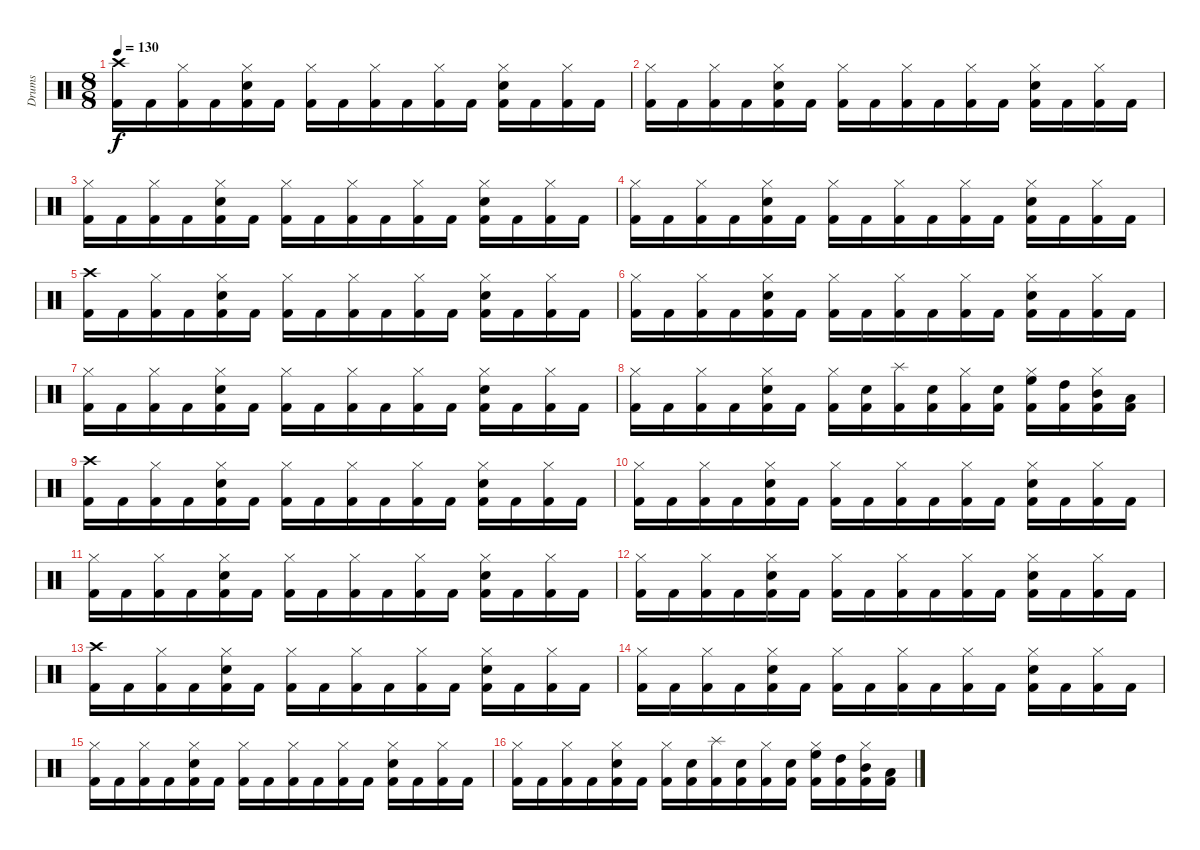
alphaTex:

\track ("Drums" "Drums") {instrument percussion}
\staff {score}
\articulation defaults
\ts (8 8)
\tempo 130
\clef neutral
\ks c
("Kick (hit) 2" "Crash high (hit)").16{dy f} "Kick (hit) 2".16 ("Kick (hit) 2" "Hi-Hat (closed)").16 "Kick (hit) 2".16 ("Kick (hit) 2" "Electric Snare (hit)" "Hi-Hat (closed)").16 "Kick (hit) 2".16 ("Kick (hit) 2" "Hi-Hat (closed)").16 "Kick (hit) 2".16 ("Kick (hit) 2" "Hi-Hat (closed)").16 "Kick (hit) 2".16 ("Kick (hit) 2" "Hi-Hat (closed)").16 "Kick (hit) 2".16 ("Kick (hit) 2" "Electric Snare (hit)" "Hi-Hat (closed)").16 "Kick (hit) 2".16 ("Kick (hit) 2" "Hi-Hat (closed)").16 "Kick (hit) 2".16 |
("Kick (hit) 2" "Hi-Hat (closed)").16 "Kick (hit) 2".16 ("Kick (hit) 2" "Hi-Hat (closed)").16 "Kick (hit) 2".16 ("Kick (hit) 2" "Electric Snare (hit)" "Hi-Hat (closed)").16 "Kick (hit) 2".16 ("Kick (hit) 2" "Hi-Hat (closed)").16 "Kick (hit) 2".16 ("Kick (hit) 2" "Hi-Hat (closed)").16 "Kick (hit) 2".16 ("Kick (hit) 2" "Hi-Hat (closed)").16 "Kick (hit) 2".16 ("Kick (hit) 2" "Electric Snare (hit)" "Hi-Hat (closed)").16 "Kick (hit) 2".16 ("Kick (hit) 2" "Hi-Hat (closed)").16 "Kick (hit) 2".16 |
("Kick (hit) 2" "Hi-Hat (closed)").16 "Kick (hit) 2".16 ("Kick (hit) 2" "Hi-Hat (closed)").16 "Kick (hit) 2".16 ("Kick (hit) 2" "Electric Snare (hit)" "Hi-Hat (closed)").16 "Kick (hit) 2".16 ("Kick (hit) 2" "Hi-Hat (closed)").16 "Kick (hit) 2".16 ("Kick (hit) 2" "Hi-Hat (closed)").16 "Kick (hit) 2".16 ("Kick (hit) 2" "Hi-Hat (closed)").16 "Kick (hit) 2".16 ("Kick (hit) 2" "Electric Snare (hit)" "Hi-Hat (closed)").16 "Kick (hit) 2".16 ("Kick (hit) 2" "Hi-Hat (closed)").16 "Kick (hit) 2".16 |
("Kick (hit) 2" "Hi-Hat (closed)").16 "Kick (hit) 2".16 ("Kick (hit) 2" "Hi-Hat (closed)").16 "Kick (hit) 2".16 ("Kick (hit) 2" "Electric Snare (hit)" "Hi-Hat (closed)").16 "Kick (hit) 2".16 ("Kick (hit) 2" "Hi-Hat (closed)").16 "Kick (hit) 2".16 ("Kick (hit) 2" "Hi-Hat (closed)").16 "Kick (hit) 2".16 ("Kick (hit) 2" "Hi-Hat (closed)").16 "Kick (hit) 2".16 ("Kick (hit) 2" "Electric Snare (hit)" "Hi-Hat (closed)").16 "Kick (hit) 2".16 ("Kick (hit) 2" "Hi-Hat (closed)").16 "Kick (hit) 2".16 |
("Kick (hit) 2" "Crash high (hit)").16 "Kick (hit) 2".16 ("Kick (hit) 2" "Hi-Hat (closed)").16 "Kick (hit) 2".16 ("Kick (hit) 2" "Electric Snare (hit)" "Hi-Hat (closed)").16 "Kick (hit) 2".16 ("Kick (hit) 2" "Hi-Hat (closed)").16 "Kick (hit) 2".16 ("Kick (hit) 2" "Hi-Hat (closed)").16 "Kick (hit) 2".16 ("Kick (hit) 2" "Hi-Hat (closed)").16 "Kick (hit) 2".16 ("Kick (hit) 2" "Electric Snare (hit)" "Hi-Hat (closed)").16 "Kick (hit) 2".16 ("Kick (hit) 2" "Hi-Hat (closed)").16 "Kick (hit) 2".16 |
("Kick (hit) 2" "Hi-Hat (closed)").16 "Kick (hit) 2".16 ("Kick (hit) 2" "Hi-Hat (closed)").16 "Kick (hit) 2".16 ("Kick (hit) 2" "Electric Snare (hit)" "Hi-Hat (closed)").16 "Kick (hit) 2".16 ("Kick (hit) 2" "Hi-Hat (closed)").16 "Kick (hit) 2".16 ("Kick (hit) 2" "Hi-Hat (closed)").16 "Kick (hit) 2".16 ("Kick (hit) 2" "Hi-Hat (closed)").16 "Kick (hit) 2".16 ("Kick (hit) 2" "Electric Snare (hit)" "Hi-Hat (closed)").16 "Kick (hit) 2".16 ("Kick (hit) 2" "Hi-Hat (closed)").16 "Kick (hit) 2".16 |
("Kick (hit) 2" "Hi-Hat (closed)").16 "Kick (hit) 2".16 ("Kick (hit) 2" "Hi-Hat (closed)").16 "Kick (hit) 2".16 ("Kick (hit) 2" "Electric Snare (hit)" "Hi-Hat (closed)").16 "Kick (hit) 2".16 ("Kick (hit) 2" "Hi-Hat (closed)").16 "Kick (hit) 2".16 ("Kick (hit) 2" "Hi-Hat (closed)").16 "Kick (hit) 2".16 ("Kick (hit) 2" "Hi-Hat (closed)").16 "Kick (hit) 2".16 ("Kick (hit) 2" "Electric Snare (hit)" "Hi-Hat (closed)").16 "Kick (hit) 2".16 ("Kick (hit) 2" "Hi-Hat (closed)").16 "Kick (hit) 2".16 |
("Kick (hit) 2" "Hi-Hat (closed)").16 "Kick (hit) 2".16 ("Kick (hit) 2" "Hi-Hat (closed)").16 "Kick (hit) 2".16 ("Kick (hit) 2" "Electric Snare (hit)" "Hi-Hat (closed)").16 "Kick (hit) 2".16 ("Kick (hit) 2" "Hi-Hat (closed)").16 ("Kick (hit) 2" "Electric Snare (hit)").16 ("Kick (hit) 2" "Splash (hit)").16 ("Kick (hit) 2" "Electric Snare (hit)").16 ("Kick (hit) 2" "Hi-Hat (closed)").16 ("Kick (hit) 2" "Electric Snare (hit)").16 ("Kick (hit) 2" "Hi-Hat (closed)" "High Floor Tom (hit)").16 ("Kick (hit) 2" "High Tom (hit)").16 ("Kick (hit) 2" "Hi-Hat (closed)" "Mid Tom (hit)").16 ("Kick (hit) 2" "Low Tom (hit)").16 |
("Kick (hit) 2" "Crash high (hit)").16 "Kick (hit) 2".16 ("Kick (hit) 2" "Hi-Hat (closed)").16 "Kick (hit) 2".16 ("Kick (hit) 2" "Electric Snare (hit)" "Hi-Hat (closed)").16 "Kick (hit) 2".16 ("Kick (hit) 2" "Hi-Hat (closed)").16 "Kick (hit) 2".16 ("Kick (hit) 2" "Hi-Hat (closed)").16 "Kick (hit) 2".16 ("Kick (hit) 2" "Hi-Hat (closed)").16 "Kick (hit) 2".16 ("Kick (hit) 2" "Electric Snare (hit)" "Hi-Hat (closed)").16 "Kick (hit) 2".16 ("Kick (hit) 2" "Hi-Hat (closed)").16 "Kick (hit) 2".16 |
("Kick (hit) 2" "Hi-Hat (closed)").16 "Kick (hit) 2".16 ("Kick (hit) 2" "Hi-Hat (closed)").16 "Kick (hit) 2".16 ("Kick (hit) 2" "Electric Snare (hit)" "Hi-Hat (closed)").16 "Kick (hit) 2".16 ("Kick (hit) 2" "Hi-Hat (closed)").16 "Kick (hit) 2".16 ("Kick (hit) 2" "Hi-Hat (closed)").16 "Kick (hit) 2".16 ("Kick (hit) 2" "Hi-Hat (closed)").16 "Kick (hit) 2".16 ("Kick (hit) 2" "Electric Snare (hit)" "Hi-Hat (closed)").16 "Kick (hit) 2".16 ("Kick (hit) 2" "Hi-Hat (closed)").16 "Kick (hit) 2".16 |
("Kick (hit) 2" "Hi-Hat (closed)").16 "Kick (hit) 2".16 ("Kick (hit) 2" "Hi-Hat (closed)").16 "Kick (hit) 2".16 ("Kick (hit) 2" "Electric Snare (hit)" "Hi-Hat (closed)").16 "Kick (hit) 2".16 ("Kick (hit) 2" "Hi-Hat (closed)").16 "Kick (hit) 2".16 ("Kick (hit) 2" "Hi-Hat (closed)").16 "Kick (hit) 2".16 ("Kick (hit) 2" "Hi-Hat (closed)").16 "Kick (hit) 2".16 ("Kick (hit) 2" "Electric Snare (hit)" "Hi-Hat (closed)").16 "Kick (hit) 2".16 ("Kick (hit) 2" "Hi-Hat (closed)").16 "Kick (hit) 2".16 |
("Kick (hit) 2" "Hi-Hat (closed)").16 "Kick (hit) 2".16 ("Kick (hit) 2" "Hi-Hat (closed)").16 "Kick (hit) 2".16 ("Kick (hit) 2" "Electric Snare (hit)" "Hi-Hat (closed)").16 "Kick (hit) 2".16 ("Kick (hit) 2" "Hi-Hat (closed)").16 "Kick (hit) 2".16 ("Kick (hit) 2" "Hi-Hat (closed)").16 "Kick (hit) 2".16 ("Kick (hit) 2" "Hi-Hat (closed)").16 "Kick (hit) 2".16 ("Kick (hit) 2" "Electric Snare (hit)" "Hi-Hat (closed)").16 "Kick (hit) 2".16 ("Kick (hit) 2" "Hi-Hat (closed)").16 "Kick (hit) 2".16 |
("Kick (hit) 2" "Crash high (hit)").16 "Kick (hit) 2".16 ("Kick (hit) 2" "Hi-Hat (closed)").16 "Kick (hit) 2".16 ("Kick (hit) 2" "Electric Snare (hit)" "Hi-Hat (closed)").16 "Kick (hit) 2".16 ("Kick (hit) 2" "Hi-Hat (closed)").16 "Kick (hit) 2".16 ("Kick (hit) 2" "Hi-Hat (closed)").16 "Kick (hit) 2".16 ("Kick (hit) 2" "Hi-Hat (closed)").16 "Kick (hit) 2".16 ("Kick (hit) 2" "Electric Snare (hit)" "Hi-Hat (closed)").16 "Kick (hit) 2".16 ("Kick (hit) 2" "Hi-Hat (closed)").16 "Kick (hit) 2".16 |
("Kick (hit) 2" "Hi-Hat (closed)").16 "Kick (hit) 2".16 ("Kick (hit) 2" "Hi-Hat (closed)").16 "Kick (hit) 2".16 ("Kick (hit) 2" "Electric Snare (hit)" "Hi-Hat (closed)").16 "Kick (hit) 2".16 ("Kick (hit) 2" "Hi-Hat (closed)").16 "Kick (hit) 2".16 ("Kick (hit) 2" "Hi-Hat (closed)").16 "Kick (hit) 2".16 ("Kick (hit) 2" "Hi-Hat (closed)").16 "Kick (hit) 2".16 ("Kick (hit) 2" "Electric Snare (hit)" "Hi-Hat (closed)").16 "Kick (hit) 2".16 ("Kick (hit) 2" "Hi-Hat (closed)").16 "Kick (hit) 2".16 |
("Kick (hit) 2" "Hi-Hat (closed)").16 "Kick (hit) 2".16 ("Kick (hit) 2" "Hi-Hat (closed)").16 "Kick (hit) 2".16 ("Kick (hit) 2" "Electric Snare (hit)" "Hi-Hat (closed)").16 "Kick (hit) 2".16 ("Kick (hit) 2" "Hi-Hat (closed)").16 "Kick (hit) 2".16 ("Kick (hit) 2" "Hi-Hat (closed)").16 "Kick (hit) 2".16 ("Kick (hit) 2" "Hi-Hat (closed)").16 "Kick (hit) 2".16 ("Kick (hit) 2" "Electric Snare (hit)" "Hi-Hat (closed)").16 "Kick (hit) 2".16 ("Kick (hit) 2" "Hi-Hat (closed)").16 "Kick (hit) 2".16 |
("Kick (hit) 2" "Hi-Hat (closed)").16 "Kick (hit) 2".16 ("Kick (hit) 2" "Hi-Hat (closed)").16 "Kick (hit) 2".16 ("Kick (hit) 2" "Electric Snare (hit)" "Hi-Hat (closed)").16 "Kick (hit) 2".16 ("Kick (hit) 2" "Hi-Hat (closed)").16 ("Kick (hit) 2" "Electric Snare (hit)").16 ("Kick (hit) 2" "Splash (hit)").16 ("Kick (hit) 2" "Electric Snare (hit)").16 ("Kick (hit) 2" "Hi-Hat (closed)").16 ("Kick (hit) 2" "Electric Snare (hit)").16 ("Kick (hit) 2" "Hi-Hat (closed)" "High Floor Tom (hit)").16 ("Kick (hit) 2" "High Tom (hit)").16 ("Kick (hit) 2" "Hi-Hat (closed)" "Mid Tom (hit)").16 ("Kick (hit) 2" "Low Tom (hit)").16
